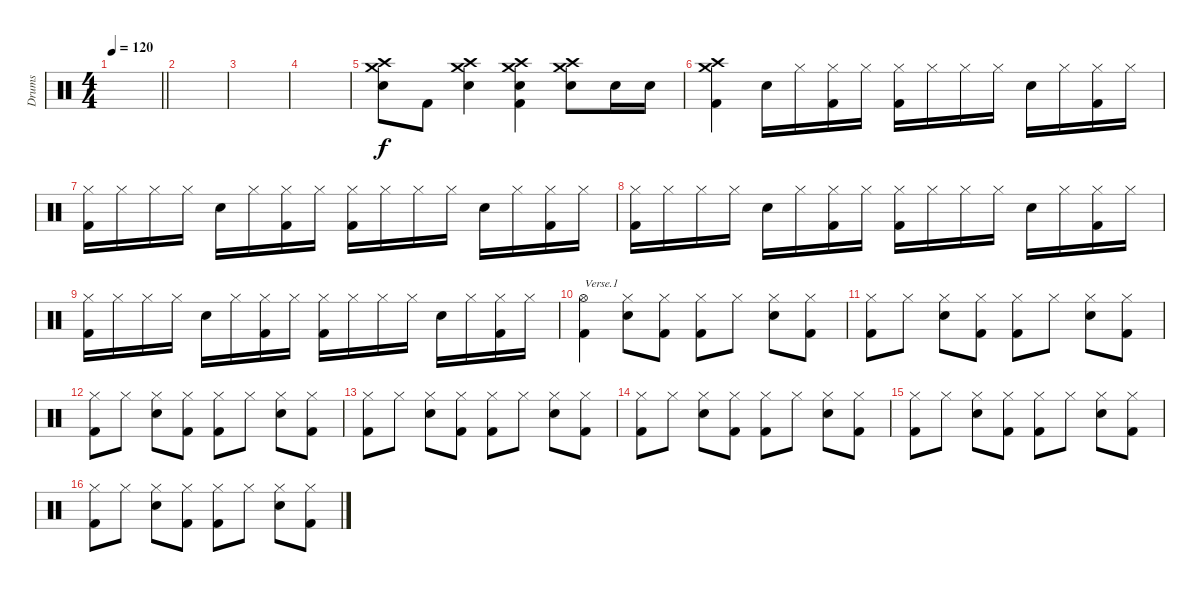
\track ("Drums" "Drums") {instrument percussion}
\staff {score}
\articulation defaults
\ts (4 4)
\tempo 120
\clef neutral
\barLineRight lightlight
\ks c
|
|
|
|
("Crash medium (hit)" "Crash high (hit)" "Snare (hit) 2").8 "Kick (hit) 2".8 ("Crash medium (hit)" "Crash high (hit)" "Snare (hit) 2").4 ("Crash medium (hit)" "Crash high (hit)" "Snare (hit) 2" "Kick (hit) 2").4 ("Crash medium (hit)" "Crash high (hit)" "Snare (hit) 2").8 "Snare (hit) 2".16 "Snare (hit) 2".16 |
("Crash medium (hit)" "Crash high (hit)" "Kick (hit) 2").4 "Snare (hit) 2".16 "Hi-Hat (closed)".16 ("Hi-Hat (closed)" "Kick (hit) 2").16 "Hi-Hat (closed)".16 ("Hi-Hat (closed)" "Kick (hit) 2").16 "Hi-Hat (closed)".16 "Hi-Hat (closed)".16 "Hi-Hat (closed)".16 "Snare (hit) 2".16 "Hi-Hat (closed)".16 ("Hi-Hat (closed)" "Kick (hit) 2").16 "Hi-Hat (closed)".16 |
("Hi-Hat (closed)" "Kick (hit) 2").16 "Hi-Hat (closed)".16 "Hi-Hat (closed)".16 "Hi-Hat (closed)".16 "Snare (hit) 2".16 "Hi-Hat (closed)".16 ("Hi-Hat (closed)" "Kick (hit) 2").16 "Hi-Hat (closed)".16 ("Hi-Hat (closed)" "Kick (hit) 2").16 "Hi-Hat (closed)".16 "Hi-Hat (closed)".16 "Hi-Hat (closed)".16 "Snare (hit) 2".16 "Hi-Hat (closed)".16 ("Hi-Hat (closed)" "Kick (hit) 2").16 "Hi-Hat (closed)".16 |
("Hi-Hat (closed)" "Kick (hit) 2").16 "Hi-Hat (closed)".16 "Hi-Hat (closed)".16 "Hi-Hat (closed)".16 "Snare (hit) 2".16 "Hi-Hat (closed)".16 ("Hi-Hat (closed)" "Kick (hit) 2").16 "Hi-Hat (closed)".16 ("Hi-Hat (closed)" "Kick (hit) 2").16 "Hi-Hat (closed)".16 "Hi-Hat (closed)".16 "Hi-Hat (closed)".16 "Snare (hit) 2".16 "Hi-Hat (closed)".16 ("Hi-Hat (closed)" "Kick (hit) 2").16 "Hi-Hat (closed)".16 |
("Hi-Hat (closed)" "Kick (hit) 2").16 "Hi-Hat (closed)".16 "Hi-Hat (closed)".16 "Hi-Hat (closed)".16 "Snare (hit) 2".16 "Hi-Hat (closed)".16 ("Hi-Hat (closed)" "Kick (hit) 2").16 "Hi-Hat (closed)".16 ("Hi-Hat (closed)" "Kick (hit) 2").16 "Hi-Hat (closed)".16 "Hi-Hat (closed)".16 "Hi-Hat (closed)".16 "Snare (hit) 2".16 "Hi-Hat (closed)".16 ("Hi-Hat (closed)" "Kick (hit) 2").16 "Hi-Hat (closed)".16 |
("Hi-Hat (open)" "Kick (hit) 2").4{txt "Verse.1"} ("Hi-Hat (closed)" "Snare (hit) 2").8 ("Hi-Hat (closed)" "Kick (hit) 2").8 ("Hi-Hat (closed)" "Kick (hit) 2").8 "Hi-Hat (closed)".8 ("Hi-Hat (closed)" "Snare (hit) 2").8 ("Hi-Hat (closed)" "Kick (hit) 2").8 |
("Hi-Hat (closed)" "Kick (hit) 2").8 "Hi-Hat (closed)".8 ("Hi-Hat (closed)" "Snare (hit) 2").8 ("Hi-Hat (closed)" "Kick (hit) 2").8 ("Hi-Hat (closed)" "Kick (hit) 2").8 "Hi-Hat (closed)".8 ("Hi-Hat (closed)" "Snare (hit) 2").8 ("Hi-Hat (closed)" "Kick (hit) 2").8 |
("Hi-Hat (closed)" "Kick (hit) 2").8 "Hi-Hat (closed)".8 ("Hi-Hat (closed)" "Snare (hit) 2").8 ("Hi-Hat (closed)" "Kick (hit) 2").8 ("Hi-Hat (closed)" "Kick (hit) 2").8 "Hi-Hat (closed)".8 ("Hi-Hat (closed)" "Snare (hit) 2").8 ("Hi-Hat (closed)" "Kick (hit) 2").8 |
("Hi-Hat (closed)" "Kick (hit) 2").8 "Hi-Hat (closed)".8 ("Hi-Hat (closed)" "Snare (hit) 2").8 ("Hi-Hat (closed)" "Kick (hit) 2").8 ("Hi-Hat (closed)" "Kick (hit) 2").8 "Hi-Hat (closed)".8 ("Hi-Hat (closed)" "Snare (hit) 2").8 ("Hi-Hat (closed)" "Kick (hit) 2").8 |
("Hi-Hat (closed)" "Kick (hit) 2").8 "Hi-Hat (closed)".8 ("Hi-Hat (closed)" "Snare (hit) 2").8 ("Hi-Hat (closed)" "Kick (hit) 2").8 ("Hi-Hat (closed)" "Kick (hit) 2").8 "Hi-Hat (closed)".8 ("Hi-Hat (closed)" "Snare (hit) 2").8 ("Hi-Hat (closed)" "Kick (hit) 2").8 |
("Hi-Hat (closed)" "Kick (hit) 2").8 "Hi-Hat (closed)".8 ("Hi-Hat (closed)" "Snare (hit) 2").8 ("Hi-Hat (closed)" "Kick (hit) 2").8 ("Hi-Hat (closed)" "Kick (hit) 2").8 "Hi-Hat (closed)".8 ("Hi-Hat (closed)" "Snare (hit) 2").8 ("Hi-Hat (closed)" "Kick (hit) 2").8 |
("Hi-Hat (closed)" "Kick (hit) 2").8 "Hi-Hat (closed)".8 ("Hi-Hat (closed)" "Snare (hit) 2").8 ("Hi-Hat (closed)" "Kick (hit) 2").8 ("Hi-Hat (closed)" "Kick (hit) 2").8 "Hi-Hat (closed)".8 ("Hi-Hat (closed)" "Snare (hit) 2").8 ("Hi-Hat (closed)" "Kick (hit) 2").8
